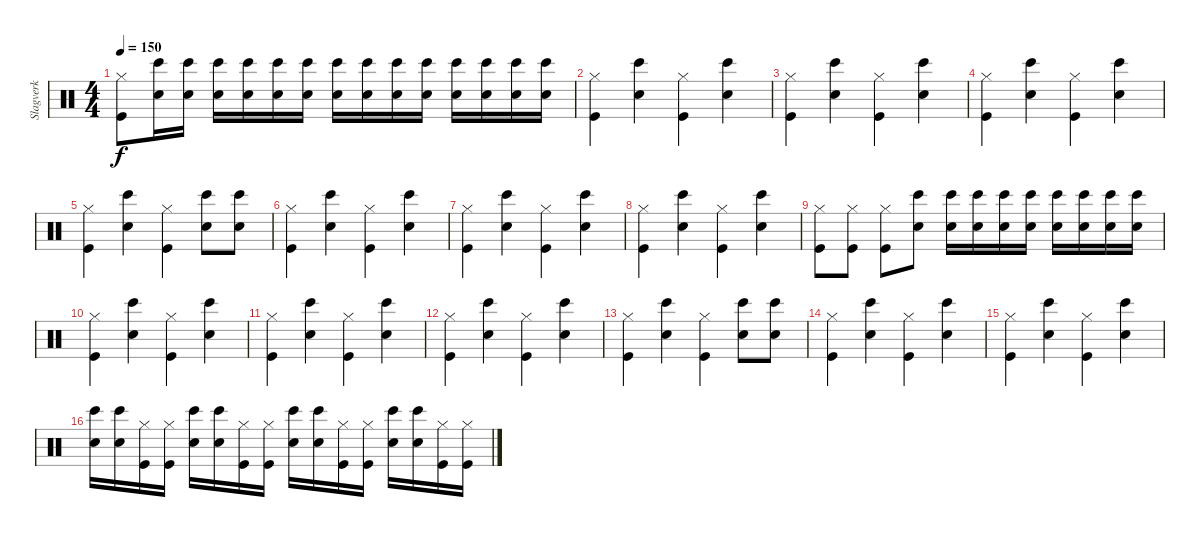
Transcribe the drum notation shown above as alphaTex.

\track ("Slagverk" "Slagverk") {instrument percussion}
\staff {score}
\articulation defaults
\ts (4 4)
\tempo 150
\clef neutral
\ks c
("Hi-Hat (closed)" "Kick (hit)").8{dy f} ("Snare (hit) 2" "Bongo High (hit)").16 ("Snare (hit) 2" "Bongo High (hit)").16 ("Snare (hit) 2" "Bongo High (hit)").16 ("Snare (hit) 2" "Bongo High (hit)").16 ("Snare (hit) 2" "Bongo High (hit)").16 ("Snare (hit) 2" "Bongo High (hit)").16 ("Snare (hit) 2" "Bongo High (hit)").16 ("Snare (hit) 2" "Bongo High (hit)").16 ("Snare (hit) 2" "Bongo High (hit)").16 ("Snare (hit) 2" "Bongo High (hit)").16 ("Snare (hit) 2" "Bongo High (hit)").16 ("Snare (hit) 2" "Bongo High (hit)").16 ("Snare (hit) 2" "Bongo High (hit)").16 ("Snare (hit) 2" "Bongo High (hit)").16 |
("Hi-Hat (closed)" "Kick (hit)").4 ("Snare (hit) 2" "Bongo High (hit)").4 ("Hi-Hat (closed)" "Kick (hit)").4 ("Snare (hit) 2" "Bongo High (hit)").4 |
("Hi-Hat (closed)" "Kick (hit)").4 ("Snare (hit) 2" "Bongo High (hit)").4 ("Hi-Hat (closed)" "Kick (hit)").4 ("Snare (hit) 2" "Bongo High (hit)").4 |
("Hi-Hat (closed)" "Kick (hit)").4 ("Snare (hit) 2" "Bongo High (hit)").4 ("Hi-Hat (closed)" "Kick (hit)").4 ("Snare (hit) 2" "Bongo High (hit)").4 |
("Hi-Hat (closed)" "Kick (hit)").4 ("Snare (hit) 2" "Bongo High (hit)").4 ("Hi-Hat (closed)" "Kick (hit)").4 ("Snare (hit) 2" "Bongo High (hit)").8 ("Snare (hit) 2" "Bongo High (hit)").8 |
("Hi-Hat (closed)" "Kick (hit)").4 ("Snare (hit) 2" "Bongo High (hit)").4 ("Hi-Hat (closed)" "Kick (hit)").4 ("Snare (hit) 2" "Bongo High (hit)").4 |
("Hi-Hat (closed)" "Kick (hit)").4 ("Snare (hit) 2" "Bongo High (hit)").4 ("Hi-Hat (closed)" "Kick (hit)").4 ("Snare (hit) 2" "Bongo High (hit)").4 |
("Hi-Hat (closed)" "Kick (hit)").4 ("Snare (hit) 2" "Bongo High (hit)").4 ("Hi-Hat (closed)" "Kick (hit)").4 ("Snare (hit) 2" "Bongo High (hit)").4 |
("Hi-Hat (closed)" "Kick (hit)").8 ("Hi-Hat (closed)" "Kick (hit)").8 ("Hi-Hat (closed)" "Kick (hit)").8 ("Snare (hit) 2" "Bongo High (hit)").8 ("Snare (hit) 2" "Bongo High (hit)").16 ("Snare (hit) 2" "Bongo High (hit)").16 ("Snare (hit) 2" "Bongo High (hit)").16 ("Snare (hit) 2" "Bongo High (hit)").16 ("Snare (hit) 2" "Bongo High (hit)").16 ("Snare (hit) 2" "Bongo High (hit)").16 ("Snare (hit) 2" "Bongo High (hit)").16 ("Snare (hit) 2" "Bongo High (hit)").16 |
("Hi-Hat (closed)" "Kick (hit)").4 ("Snare (hit) 2" "Bongo High (hit)").4 ("Hi-Hat (closed)" "Kick (hit)").4 ("Snare (hit) 2" "Bongo High (hit)").4 |
("Hi-Hat (closed)" "Kick (hit)").4 ("Snare (hit) 2" "Bongo High (hit)").4 ("Hi-Hat (closed)" "Kick (hit)").4 ("Snare (hit) 2" "Bongo High (hit)").4 |
("Hi-Hat (closed)" "Kick (hit)").4 ("Snare (hit) 2" "Bongo High (hit)").4 ("Hi-Hat (closed)" "Kick (hit)").4 ("Snare (hit) 2" "Bongo High (hit)").4 |
("Hi-Hat (closed)" "Kick (hit)").4 ("Snare (hit) 2" "Bongo High (hit)").4 ("Hi-Hat (closed)" "Kick (hit)").4 ("Snare (hit) 2" "Bongo High (hit)").8 ("Snare (hit) 2" "Bongo High (hit)").8 |
("Hi-Hat (closed)" "Kick (hit)").4 ("Snare (hit) 2" "Bongo High (hit)").4 ("Hi-Hat (closed)" "Kick (hit)").4 ("Snare (hit) 2" "Bongo High (hit)").4 |
("Hi-Hat (closed)" "Kick (hit)").4 ("Snare (hit) 2" "Bongo High (hit)").4 ("Hi-Hat (closed)" "Kick (hit)").4 ("Snare (hit) 2" "Bongo High (hit)").4 |
("Snare (hit) 2" "Bongo High (hit)").16 ("Snare (hit) 2" "Bongo High (hit)").16 ("Hi-Hat (closed)" "Kick (hit)").16 ("Hi-Hat (closed)" "Kick (hit)").16 ("Snare (hit) 2" "Bongo High (hit)").16 ("Snare (hit) 2" "Bongo High (hit)").16 ("Hi-Hat (closed)" "Kick (hit)").16 ("Hi-Hat (closed)" "Kick (hit)").16 ("Snare (hit) 2" "Bongo High (hit)").16 ("Snare (hit) 2" "Bongo High (hit)").16 ("Hi-Hat (closed)" "Kick (hit)").16 ("Hi-Hat (closed)" "Kick (hit)").16 ("Snare (hit) 2" "Bongo High (hit)").16 ("Snare (hit) 2" "Bongo High (hit)").16 ("Hi-Hat (closed)" "Kick (hit)").16 ("Hi-Hat (closed)" "Kick (hit)").16
